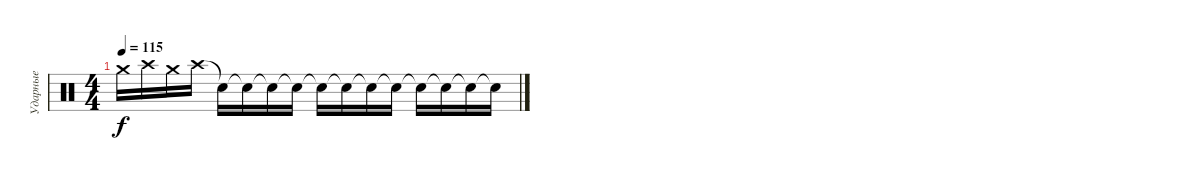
\track ("Ударные" "Ударные") {instrument percussion}
\staff {score}
\articulation defaults
\ts (4 4)
\tempo 115
\clef neutral
\ks c "Crash medium (hit)".16{dy f volume 14} "Crash high (hit)".16{volume 15} "Crash medium (hit)".16{volume 16} "Crash high (hit)".16 "Snare (hit)"{t}.16 "Snare (hit)"{t}.16 "Snare (hit)"{t}.16 "Snare (hit)"{t}.16 "Snare (hit)"{t}.16 "Snare (hit)"{t}.16 "Snare (hit)"{t}.16 "Snare (hit)"{t}.16 "Snare (hit)"{t}.16 "Snare (hit)"{t}.16 "Snare (hit)"{t}.16 "Snare (hit)"{t}.16
